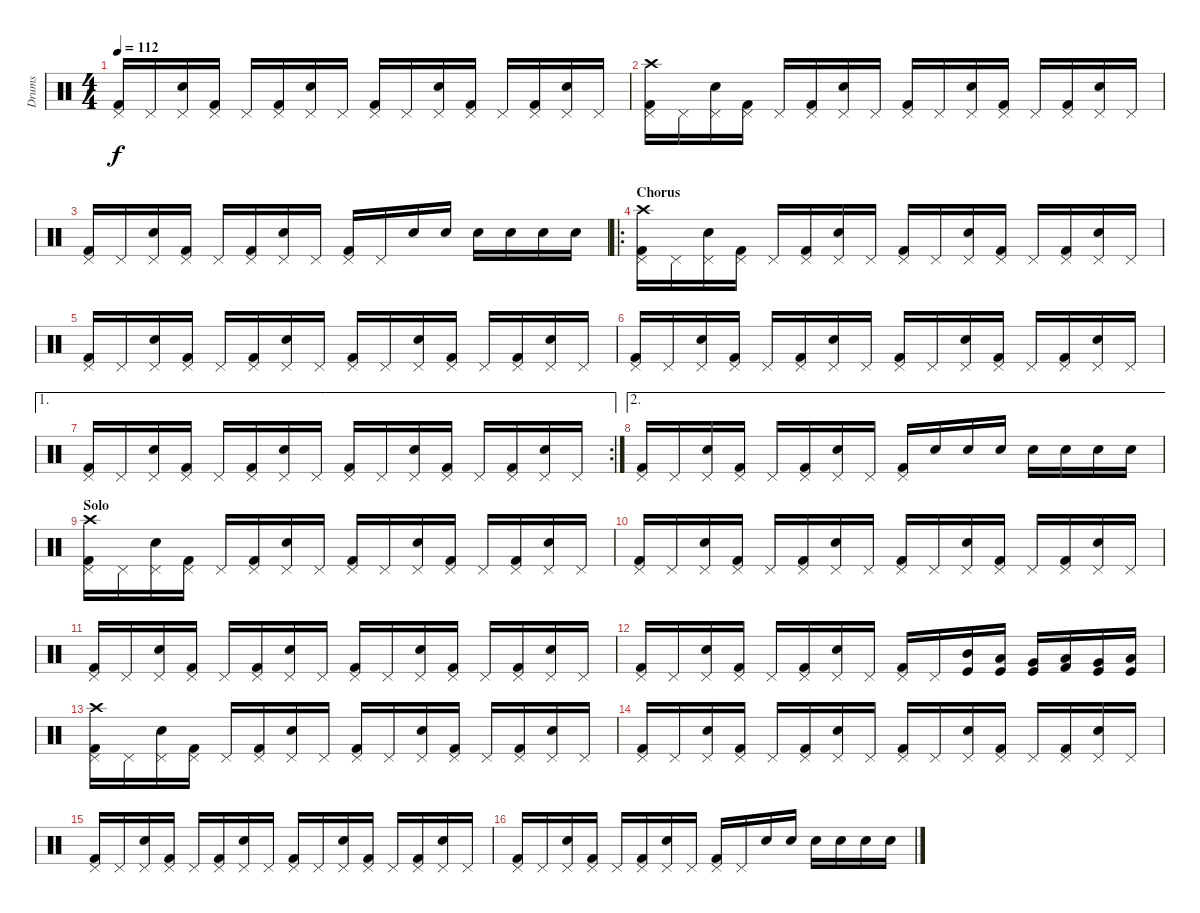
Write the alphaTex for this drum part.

\track ("Drums" "Drums") {instrument percussion}
\staff {score}
\articulation defaults
\ts (4 4)
\tempo 112
\clef neutral
\ks c
("Kick (hit) 2" "Pedal Hi-Hat (hit)").16{dy f} "Pedal Hi-Hat (hit)".16 ("Snare (hit) 2" "Pedal Hi-Hat (hit)").16 ("Kick (hit) 2" "Pedal Hi-Hat (hit)").16 "Pedal Hi-Hat (hit)".16 ("Kick (hit) 2" "Pedal Hi-Hat (hit)").16 ("Snare (hit) 2" "Pedal Hi-Hat (hit)").16 "Pedal Hi-Hat (hit)".16 ("Kick (hit) 2" "Pedal Hi-Hat (hit)").16 "Pedal Hi-Hat (hit)".16 ("Snare (hit) 2" "Pedal Hi-Hat (hit)").16 ("Kick (hit) 2" "Pedal Hi-Hat (hit)").16 "Pedal Hi-Hat (hit)".16 ("Kick (hit) 2" "Pedal Hi-Hat (hit)").16 ("Snare (hit) 2" "Pedal Hi-Hat (hit)").16 "Pedal Hi-Hat (hit)".16 |
("Kick (hit) 2" "Pedal Hi-Hat (hit)" "Crash high (hit)").16 "Pedal Hi-Hat (hit)".16 ("Snare (hit) 2" "Pedal Hi-Hat (hit)").16 ("Kick (hit) 2" "Pedal Hi-Hat (hit)").16 "Pedal Hi-Hat (hit)".16 ("Kick (hit) 2" "Pedal Hi-Hat (hit)").16 ("Snare (hit) 2" "Pedal Hi-Hat (hit)").16 "Pedal Hi-Hat (hit)".16 ("Kick (hit) 2" "Pedal Hi-Hat (hit)").16 "Pedal Hi-Hat (hit)".16 ("Snare (hit) 2" "Pedal Hi-Hat (hit)").16 ("Kick (hit) 2" "Pedal Hi-Hat (hit)").16 "Pedal Hi-Hat (hit)".16 ("Kick (hit) 2" "Pedal Hi-Hat (hit)").16 ("Snare (hit) 2" "Pedal Hi-Hat (hit)").16 "Pedal Hi-Hat (hit)".16 |
("Kick (hit) 2" "Pedal Hi-Hat (hit)").16 "Pedal Hi-Hat (hit)".16 ("Snare (hit) 2" "Pedal Hi-Hat (hit)").16 ("Kick (hit) 2" "Pedal Hi-Hat (hit)").16 "Pedal Hi-Hat (hit)".16 ("Kick (hit) 2" "Pedal Hi-Hat (hit)").16 ("Snare (hit) 2" "Pedal Hi-Hat (hit)").16 "Pedal Hi-Hat (hit)".16 ("Kick (hit) 2" "Pedal Hi-Hat (hit)").16 "Pedal Hi-Hat (hit)".16 "Snare (hit) 2".16 "Snare (hit) 2".16 "Snare (hit) 2".16 "Snare (hit) 2".16 "Snare (hit) 2".16 "Snare (hit) 2".16 |
\ro
\section ("" "Chorus")
("Kick (hit) 2" "Pedal Hi-Hat (hit)" "Crash high (hit)").16 "Pedal Hi-Hat (hit)".16 ("Snare (hit) 2" "Pedal Hi-Hat (hit)").16 ("Kick (hit) 2" "Pedal Hi-Hat (hit)").16 "Pedal Hi-Hat (hit)".16 ("Kick (hit) 2" "Pedal Hi-Hat (hit)").16 ("Snare (hit) 2" "Pedal Hi-Hat (hit)").16 "Pedal Hi-Hat (hit)".16 ("Kick (hit) 2" "Pedal Hi-Hat (hit)").16 "Pedal Hi-Hat (hit)".16 ("Snare (hit) 2" "Pedal Hi-Hat (hit)").16 ("Kick (hit) 2" "Pedal Hi-Hat (hit)").16 "Pedal Hi-Hat (hit)".16 ("Kick (hit) 2" "Pedal Hi-Hat (hit)").16 ("Snare (hit) 2" "Pedal Hi-Hat (hit)").16 "Pedal Hi-Hat (hit)".16 |
("Kick (hit) 2" "Pedal Hi-Hat (hit)").16 "Pedal Hi-Hat (hit)".16 ("Snare (hit) 2" "Pedal Hi-Hat (hit)").16 ("Kick (hit) 2" "Pedal Hi-Hat (hit)").16 "Pedal Hi-Hat (hit)".16 ("Kick (hit) 2" "Pedal Hi-Hat (hit)").16 ("Snare (hit) 2" "Pedal Hi-Hat (hit)").16 "Pedal Hi-Hat (hit)".16 ("Kick (hit) 2" "Pedal Hi-Hat (hit)").16 "Pedal Hi-Hat (hit)".16 ("Snare (hit) 2" "Pedal Hi-Hat (hit)").16 ("Kick (hit) 2" "Pedal Hi-Hat (hit)").16 "Pedal Hi-Hat (hit)".16 ("Kick (hit) 2" "Pedal Hi-Hat (hit)").16 ("Snare (hit) 2" "Pedal Hi-Hat (hit)").16 "Pedal Hi-Hat (hit)".16 |
("Kick (hit) 2" "Pedal Hi-Hat (hit)").16 "Pedal Hi-Hat (hit)".16 ("Snare (hit) 2" "Pedal Hi-Hat (hit)").16 ("Kick (hit) 2" "Pedal Hi-Hat (hit)").16 "Pedal Hi-Hat (hit)".16 ("Kick (hit) 2" "Pedal Hi-Hat (hit)").16 ("Snare (hit) 2" "Pedal Hi-Hat (hit)").16 "Pedal Hi-Hat (hit)".16 ("Kick (hit) 2" "Pedal Hi-Hat (hit)").16 "Pedal Hi-Hat (hit)".16 ("Snare (hit) 2" "Pedal Hi-Hat (hit)").16 ("Kick (hit) 2" "Pedal Hi-Hat (hit)").16 "Pedal Hi-Hat (hit)".16 ("Kick (hit) 2" "Pedal Hi-Hat (hit)").16 ("Snare (hit) 2" "Pedal Hi-Hat (hit)").16 "Pedal Hi-Hat (hit)".16 |
\ae 1
\rc 2
("Kick (hit) 2" "Pedal Hi-Hat (hit)").16 "Pedal Hi-Hat (hit)".16 ("Snare (hit) 2" "Pedal Hi-Hat (hit)").16 ("Kick (hit) 2" "Pedal Hi-Hat (hit)").16 "Pedal Hi-Hat (hit)".16 ("Kick (hit) 2" "Pedal Hi-Hat (hit)").16 ("Snare (hit) 2" "Pedal Hi-Hat (hit)").16 "Pedal Hi-Hat (hit)".16 ("Kick (hit) 2" "Pedal Hi-Hat (hit)").16 "Pedal Hi-Hat (hit)".16 ("Snare (hit) 2" "Pedal Hi-Hat (hit)").16 ("Kick (hit) 2" "Pedal Hi-Hat (hit)").16 "Pedal Hi-Hat (hit)".16 ("Kick (hit) 2" "Pedal Hi-Hat (hit)").16 ("Snare (hit) 2" "Pedal Hi-Hat (hit)").16 "Pedal Hi-Hat (hit)".16 |
\ae 2
("Kick (hit) 2" "Pedal Hi-Hat (hit)").16 "Pedal Hi-Hat (hit)".16 ("Snare (hit) 2" "Pedal Hi-Hat (hit)").16 ("Kick (hit) 2" "Pedal Hi-Hat (hit)").16 "Pedal Hi-Hat (hit)".16 ("Kick (hit) 2" "Pedal Hi-Hat (hit)").16 ("Snare (hit) 2" "Pedal Hi-Hat (hit)").16 "Pedal Hi-Hat (hit)".16 ("Kick (hit) 2" "Pedal Hi-Hat (hit)").16 "Snare (hit) 2".16 "Snare (hit) 2".16 "Snare (hit) 2".16 "Snare (hit) 2".16 "Snare (hit) 2".16 "Snare (hit) 2".16 "Snare (hit) 2".16 |
\section ("" "Solo")
("Kick (hit) 2" "Pedal Hi-Hat (hit)" "Crash high (hit)").16 "Pedal Hi-Hat (hit)".16 ("Snare (hit) 2" "Pedal Hi-Hat (hit)").16 ("Kick (hit) 2" "Pedal Hi-Hat (hit)").16 "Pedal Hi-Hat (hit)".16 ("Kick (hit) 2" "Pedal Hi-Hat (hit)").16 ("Snare (hit) 2" "Pedal Hi-Hat (hit)").16 "Pedal Hi-Hat (hit)".16 ("Kick (hit) 2" "Pedal Hi-Hat (hit)").16 "Pedal Hi-Hat (hit)".16 ("Snare (hit) 2" "Pedal Hi-Hat (hit)").16 ("Kick (hit) 2" "Pedal Hi-Hat (hit)").16 "Pedal Hi-Hat (hit)".16 ("Kick (hit) 2" "Pedal Hi-Hat (hit)").16 ("Snare (hit) 2" "Pedal Hi-Hat (hit)").16 "Pedal Hi-Hat (hit)".16 |
("Kick (hit) 2" "Pedal Hi-Hat (hit)").16 "Pedal Hi-Hat (hit)".16 ("Snare (hit) 2" "Pedal Hi-Hat (hit)").16 ("Kick (hit) 2" "Pedal Hi-Hat (hit)").16 "Pedal Hi-Hat (hit)".16 ("Kick (hit) 2" "Pedal Hi-Hat (hit)").16 ("Snare (hit) 2" "Pedal Hi-Hat (hit)").16 "Pedal Hi-Hat (hit)".16 ("Kick (hit) 2" "Pedal Hi-Hat (hit)").16 "Pedal Hi-Hat (hit)".16 ("Snare (hit) 2" "Pedal Hi-Hat (hit)").16 ("Kick (hit) 2" "Pedal Hi-Hat (hit)").16 "Pedal Hi-Hat (hit)".16 ("Kick (hit) 2" "Pedal Hi-Hat (hit)").16 ("Snare (hit) 2" "Pedal Hi-Hat (hit)").16 "Pedal Hi-Hat (hit)".16 |
("Kick (hit) 2" "Pedal Hi-Hat (hit)").16 "Pedal Hi-Hat (hit)".16 ("Snare (hit) 2" "Pedal Hi-Hat (hit)").16 ("Kick (hit) 2" "Pedal Hi-Hat (hit)").16 "Pedal Hi-Hat (hit)".16 ("Kick (hit) 2" "Pedal Hi-Hat (hit)").16 ("Snare (hit) 2" "Pedal Hi-Hat (hit)").16 "Pedal Hi-Hat (hit)".16 ("Kick (hit) 2" "Pedal Hi-Hat (hit)").16 "Pedal Hi-Hat (hit)".16 ("Snare (hit) 2" "Pedal Hi-Hat (hit)").16 ("Kick (hit) 2" "Pedal Hi-Hat (hit)").16 "Pedal Hi-Hat (hit)".16 ("Kick (hit) 2" "Pedal Hi-Hat (hit)").16 ("Snare (hit) 2" "Pedal Hi-Hat (hit)").16 "Pedal Hi-Hat (hit)".16 |
("Kick (hit) 2" "Pedal Hi-Hat (hit)").16 "Pedal Hi-Hat (hit)".16 ("Snare (hit) 2" "Pedal Hi-Hat (hit)").16 ("Kick (hit) 2" "Pedal Hi-Hat (hit)").16 "Pedal Hi-Hat (hit)".16 ("Kick (hit) 2" "Pedal Hi-Hat (hit)").16 ("Snare (hit) 2" "Pedal Hi-Hat (hit)").16 "Pedal Hi-Hat (hit)".16 ("Kick (hit) 2" "Pedal Hi-Hat (hit)").16 "Pedal Hi-Hat (hit)".16 ("Mid Tom (hit)" "Kick (hit)").16 ("Low Tom (hit)" "Kick (hit)").16 ("Very Low Tom (hit)" "Kick (hit)").16 ("Low Tom (hit)" "Kick (hit) 2").16 ("Very Low Tom (hit)" "Kick (hit)").16 ("Low Floor Tom (hit)" "Kick (hit)").16 |
("Kick (hit) 2" "Pedal Hi-Hat (hit)" "Crash high (hit)").16 "Pedal Hi-Hat (hit)".16 ("Snare (hit) 2" "Pedal Hi-Hat (hit)").16 ("Kick (hit) 2" "Pedal Hi-Hat (hit)").16 "Pedal Hi-Hat (hit)".16 ("Kick (hit) 2" "Pedal Hi-Hat (hit)").16 ("Snare (hit) 2" "Pedal Hi-Hat (hit)").16 "Pedal Hi-Hat (hit)".16 ("Kick (hit) 2" "Pedal Hi-Hat (hit)").16 "Pedal Hi-Hat (hit)".16 ("Snare (hit) 2" "Pedal Hi-Hat (hit)").16 ("Kick (hit) 2" "Pedal Hi-Hat (hit)").16 "Pedal Hi-Hat (hit)".16 ("Kick (hit) 2" "Pedal Hi-Hat (hit)").16 ("Snare (hit) 2" "Pedal Hi-Hat (hit)").16 "Pedal Hi-Hat (hit)".16 |
("Kick (hit) 2" "Pedal Hi-Hat (hit)").16 "Pedal Hi-Hat (hit)".16 ("Snare (hit) 2" "Pedal Hi-Hat (hit)").16 ("Kick (hit) 2" "Pedal Hi-Hat (hit)").16 "Pedal Hi-Hat (hit)".16 ("Kick (hit) 2" "Pedal Hi-Hat (hit)").16 ("Snare (hit) 2" "Pedal Hi-Hat (hit)").16 "Pedal Hi-Hat (hit)".16 ("Kick (hit) 2" "Pedal Hi-Hat (hit)").16 "Pedal Hi-Hat (hit)".16 ("Snare (hit) 2" "Pedal Hi-Hat (hit)").16 ("Kick (hit) 2" "Pedal Hi-Hat (hit)").16 "Pedal Hi-Hat (hit)".16 ("Kick (hit) 2" "Pedal Hi-Hat (hit)").16 ("Snare (hit) 2" "Pedal Hi-Hat (hit)").16 "Pedal Hi-Hat (hit)".16 |
("Kick (hit) 2" "Pedal Hi-Hat (hit)").16 "Pedal Hi-Hat (hit)".16 ("Snare (hit) 2" "Pedal Hi-Hat (hit)").16 ("Kick (hit) 2" "Pedal Hi-Hat (hit)").16 "Pedal Hi-Hat (hit)".16 ("Kick (hit) 2" "Pedal Hi-Hat (hit)").16 ("Snare (hit) 2" "Pedal Hi-Hat (hit)").16 "Pedal Hi-Hat (hit)".16 ("Kick (hit) 2" "Pedal Hi-Hat (hit)").16 "Pedal Hi-Hat (hit)".16 ("Snare (hit) 2" "Pedal Hi-Hat (hit)").16 ("Kick (hit) 2" "Pedal Hi-Hat (hit)").16 "Pedal Hi-Hat (hit)".16 ("Kick (hit) 2" "Pedal Hi-Hat (hit)").16 ("Snare (hit) 2" "Pedal Hi-Hat (hit)").16 "Pedal Hi-Hat (hit)".16 |
("Kick (hit) 2" "Pedal Hi-Hat (hit)").16 "Pedal Hi-Hat (hit)".16 ("Snare (hit) 2" "Pedal Hi-Hat (hit)").16 ("Kick (hit) 2" "Pedal Hi-Hat (hit)").16 "Pedal Hi-Hat (hit)".16 ("Kick (hit) 2" "Pedal Hi-Hat (hit)").16 ("Snare (hit) 2" "Pedal Hi-Hat (hit)").16 "Pedal Hi-Hat (hit)".16 ("Kick (hit) 2" "Pedal Hi-Hat (hit)").16 "Pedal Hi-Hat (hit)".16 "Snare (hit) 2".16 "Snare (hit) 2".16 "Snare (hit) 2".16 "Snare (hit) 2".16 "Snare (hit) 2".16 "Snare (hit) 2".16
